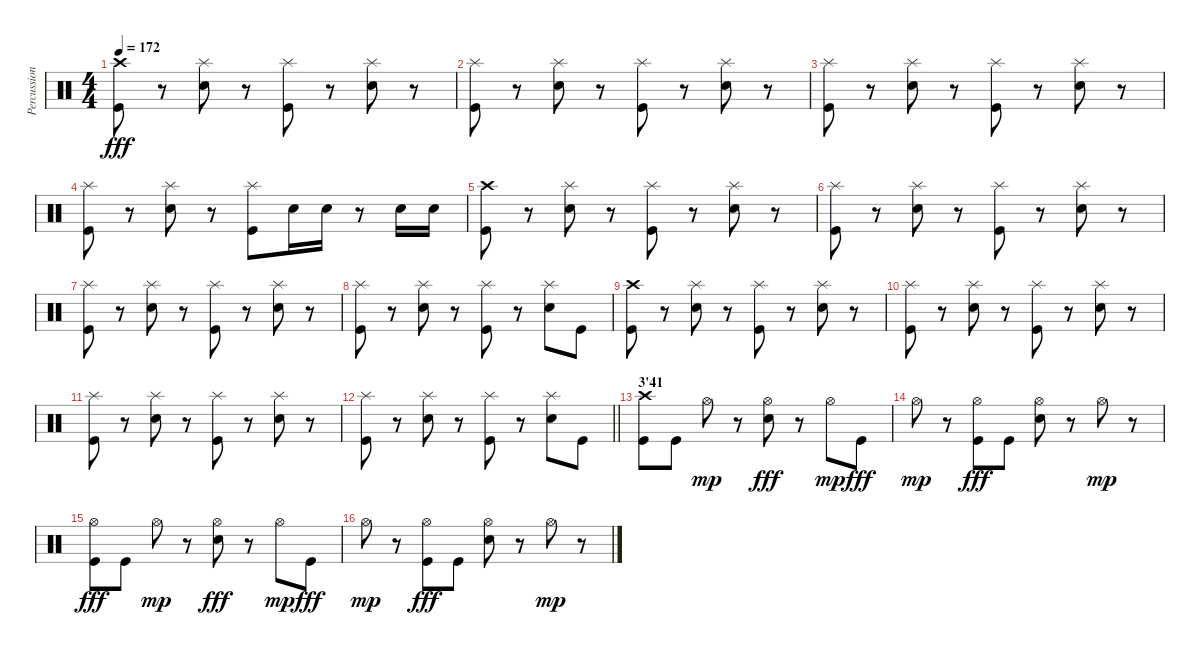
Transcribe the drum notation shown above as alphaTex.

\track ("Percussions" "Percussion") {instrument percussion}
\staff {score}
\articulation defaults
\ts (4 4)
\tempo 172
\clef neutral
\ks c
("Crash high (hit)" "Kick (hit)").8{dy fff} r.8 ("Splash (hit)" "Snare (hit) 2").8 r.8 ("Splash (hit)" "Kick (hit)").8 r.8 ("Splash (hit)" "Snare (hit) 2").8 r.8 |
("Splash (hit)" "Kick (hit)").8 r.8 ("Splash (hit)" "Snare (hit) 2").8 r.8 ("Splash (hit)" "Kick (hit)").8 r.8 ("Splash (hit)" "Snare (hit) 2").8 r.8 |
("Splash (hit)" "Kick (hit)").8 r.8 ("Splash (hit)" "Snare (hit) 2").8 r.8 ("Splash (hit)" "Kick (hit)").8 r.8 ("Splash (hit)" "Snare (hit) 2").8 r.8 |
("Splash (hit)" "Kick (hit)").8 r.8 ("Splash (hit)" "Snare (hit) 2").8 r.8 ("Splash (hit)" "Kick (hit)").8 "Snare (hit) 2".16 "Snare (hit) 2".16 r.8 "Snare (hit) 2".16 "Snare (hit) 2".16 |
("Crash high (hit)" "Kick (hit)").8 r.8 ("Splash (hit)" "Snare (hit) 2").8 r.8 ("Splash (hit)" "Kick (hit)").8 r.8 ("Splash (hit)" "Snare (hit) 2").8 r.8 |
("Splash (hit)" "Kick (hit)").8 r.8 ("Splash (hit)" "Snare (hit) 2").8 r.8 ("Splash (hit)" "Kick (hit)").8 r.8 ("Splash (hit)" "Snare (hit) 2").8 r.8 |
("Splash (hit)" "Kick (hit)").8 r.8 ("Splash (hit)" "Snare (hit) 2").8 r.8 ("Splash (hit)" "Kick (hit)").8 r.8 ("Splash (hit)" "Snare (hit) 2").8 r.8 |
("Splash (hit)" "Kick (hit)").8 r.8 ("Splash (hit)" "Snare (hit) 2").8 r.8 ("Splash (hit)" "Kick (hit)").8 r.8 ("Splash (hit)" "Snare (hit) 2").8 "Kick (hit)".8 |
("Crash high (hit)" "Kick (hit)").8 r.8 ("Splash (hit)" "Snare (hit) 2").8 r.8 ("Splash (hit)" "Kick (hit)").8 r.8 ("Splash (hit)" "Snare (hit) 2").8 r.8 |
("Splash (hit)" "Kick (hit)").8 r.8 ("Splash (hit)" "Snare (hit) 2").8 r.8 ("Splash (hit)" "Kick (hit)").8 r.8 ("Splash (hit)" "Snare (hit) 2").8 r.8 |
("Splash (hit)" "Kick (hit)").8 r.8 ("Splash (hit)" "Snare (hit) 2").8 r.8 ("Splash (hit)" "Kick (hit)").8 r.8 ("Splash (hit)" "Snare (hit) 2").8 r.8 |
\barLineRight lightlight
("Splash (hit)" "Kick (hit)").8 r.8 ("Splash (hit)" "Snare (hit) 2").8 r.8 ("Splash (hit)" "Kick (hit)").8 r.8 ("Splash (hit)" "Snare (hit) 2").8 "Kick (hit)".8 |
\section ("" "3'41")
("Crash high (hit)" "Kick (hit)").8 "Kick (hit)".8 "Hi-Hat (open)".8{dy mp} r.8 ("Hi-Hat (open)" "Snare (hit) 2").8{dy fff} r.8 "Hi-Hat (open)".8{dy mp} "Kick (hit)".8{dy fff} |
"Hi-Hat (open)".8{dy mp} r.8 ("Hi-Hat (open)" "Kick (hit)").8{dy fff} "Kick (hit)".8 ("Hi-Hat (open)" "Snare (hit) 2").8 r.8 "Hi-Hat (open)".8{dy mp} r.8 |
("Hi-Hat (open)" "Kick (hit)").8{dy fff} "Kick (hit)".8 "Hi-Hat (open)".8{dy mp} r.8 ("Hi-Hat (open)" "Snare (hit) 2").8{dy fff} r.8 "Hi-Hat (open)".8{dy mp} "Kick (hit)".8{dy fff} |
"Hi-Hat (open)".8{dy mp} r.8 ("Hi-Hat (open)" "Kick (hit)").8{dy fff} "Kick (hit)".8 ("Hi-Hat (open)" "Snare (hit) 2").8 r.8 "Hi-Hat (open)".8{dy mp} r.8
